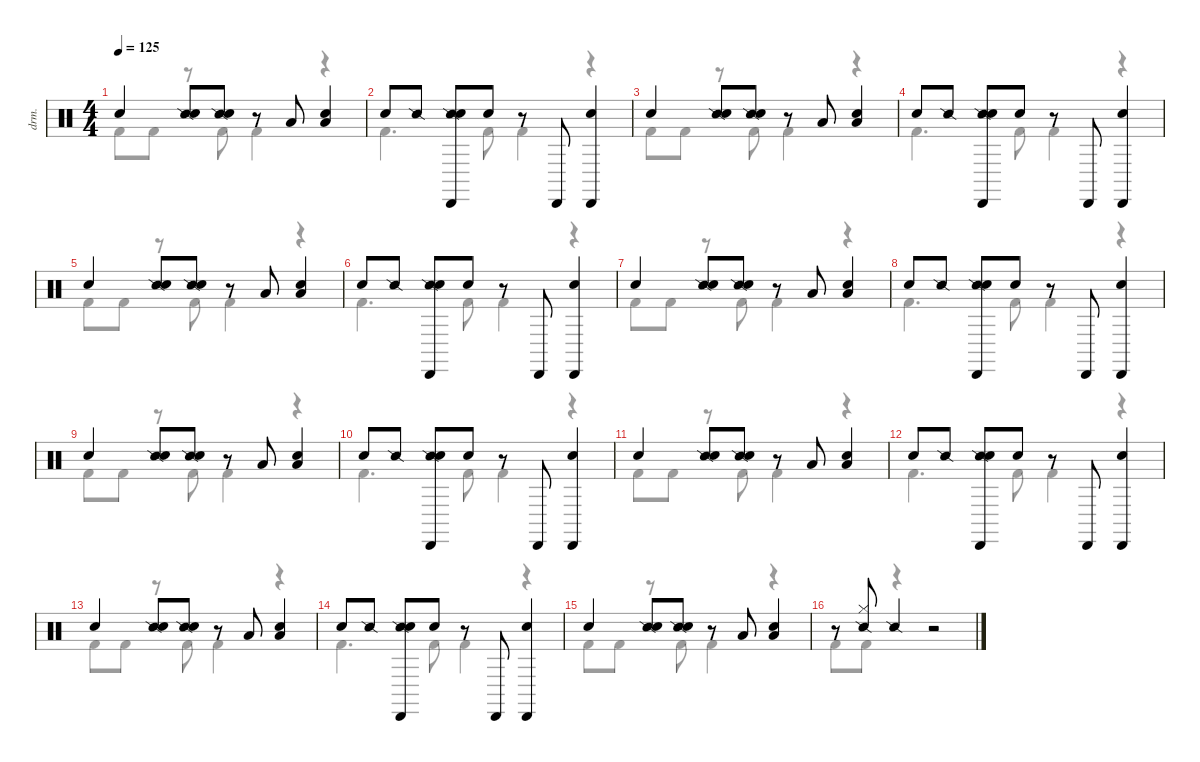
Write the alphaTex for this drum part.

\defaultSystemsLayout 4
\hideDynamics
\bracketExtendMode nobrackets
\otherSystemsTrackNameOrientation horizontal
\track ("Drums" "drm.") {instrument percussion}
\staff {score}
\articulation defaults
\voice
\ts (4 4)
\tempo 125
\clef neutral
\ks c "Hand Clap (hit)".4{dy p beam Up}
("Snare (side stick) 2" "Snare (hit) 2").8{dy mf beam Up} ("Snare (side stick) 2" "Hand Clap (hit)").8{beam Up} r.8{beam Up} "Low Tom (hit)".8{dy f beam Up} ("Low Tom (hit)" "Snare (hit) 2").4{beam Up} |
"Hand Clap (hit)".8{dy p beam Up} "Snare (side stick) 2".8{dy f beam Up} ("Snare (side stick) 2" "Cabasa (hit)" "Snare (hit) 2").8{beam Up} "Hand Clap (hit)".8{dy p beam Up} r.8{beam Up} "Cabasa (hit)".8{dy f beam Up} ("Cabasa (hit)" "Snare (hit) 2").4{beam Up} |
"Hand Clap (hit)".4{dy p beam Up} ("Snare (side stick) 2" "Snare (hit) 2").8{dy mf beam Up} ("Snare (side stick) 2" "Hand Clap (hit)").8{beam Up} r.8{beam Up} "Low Tom (hit)".8{dy f beam Up} ("Low Tom (hit)" "Snare (hit) 2").4{beam Up} |
"Hand Clap (hit)".8{dy p beam Up} "Snare (side stick) 2".8{dy f beam Up} ("Snare (side stick) 2" "Cabasa (hit)" "Snare (hit) 2").8{beam Up} "Hand Clap (hit)".8{dy p beam Up} r.8{beam Up} "Cabasa (hit)".8{dy f beam Up} ("Cabasa (hit)" "Snare (hit) 2").4{beam Up} |
"Hand Clap (hit)".4{dy p beam Up} ("Snare (side stick) 2" "Snare (hit) 2").8{dy mf beam Up} ("Snare (side stick) 2" "Hand Clap (hit)").8{beam Up} r.8{beam Up} "Low Tom (hit)".8{dy f beam Up} ("Low Tom (hit)" "Snare (hit) 2").4{beam Up} |
"Hand Clap (hit)".8{dy p beam Up} "Snare (side stick) 2".8{dy f beam Up} ("Snare (side stick) 2" "Cabasa (hit)" "Snare (hit) 2").8{beam Up} "Hand Clap (hit)".8{dy p beam Up} r.8{beam Up} "Cabasa (hit)".8{dy f beam Up} ("Cabasa (hit)" "Snare (hit) 2").4{beam Up} |
"Hand Clap (hit)".4{dy p beam Up} ("Snare (side stick) 2" "Snare (hit) 2").8{dy mf beam Up} ("Snare (side stick) 2" "Hand Clap (hit)").8{beam Up} r.8{beam Up} "Low Tom (hit)".8{dy f beam Up} ("Low Tom (hit)" "Snare (hit) 2").4{beam Up} |
"Hand Clap (hit)".8{dy p beam Up} "Snare (side stick) 2".8{dy f beam Up} ("Snare (side stick) 2" "Cabasa (hit)" "Snare (hit) 2").8{beam Up} "Hand Clap (hit)".8{dy p beam Up} r.8{beam Up} "Cabasa (hit)".8{dy f beam Up} ("Cabasa (hit)" "Snare (hit) 2").4{beam Up} |
"Hand Clap (hit)".4{dy p beam Up} ("Snare (side stick) 2" "Snare (hit) 2").8{dy mf beam Up} ("Snare (side stick) 2" "Hand Clap (hit)").8{beam Up} r.8{beam Up} "Low Tom (hit)".8{dy f beam Up} ("Low Tom (hit)" "Snare (hit) 2").4{beam Up} |
"Hand Clap (hit)".8{dy p beam Up} "Snare (side stick) 2".8{dy f beam Up} ("Snare (side stick) 2" "Cabasa (hit)" "Snare (hit) 2").8{beam Up} "Hand Clap (hit)".8{dy p beam Up} r.8{beam Up} "Cabasa (hit)".8{dy f beam Up} ("Cabasa (hit)" "Snare (hit) 2").4{beam Up} |
"Hand Clap (hit)".4{dy p beam Up} ("Snare (side stick) 2" "Snare (hit) 2").8{dy mf beam Up} ("Snare (side stick) 2" "Hand Clap (hit)").8{beam Up} r.8{beam Up} "Low Tom (hit)".8{dy f beam Up} ("Low Tom (hit)" "Snare (hit) 2").4{beam Up} |
"Hand Clap (hit)".8{dy p beam Up} "Snare (side stick) 2".8{dy f beam Up} ("Snare (side stick) 2" "Cabasa (hit)" "Snare (hit) 2").8{beam Up} "Hand Clap (hit)".8{dy p beam Up} r.8{beam Up} "Cabasa (hit)".8{dy f beam Up} ("Cabasa (hit)" "Snare (hit) 2").4{beam Up} |
"Hand Clap (hit)".4{dy p beam Up} ("Snare (side stick) 2" "Snare (hit) 2").8{dy mf beam Up} ("Snare (side stick) 2" "Hand Clap (hit)").8{beam Up} r.8{beam Up} "Low Tom (hit)".8{dy f beam Up} ("Low Tom (hit)" "Snare (hit) 2").4{beam Up} |
"Hand Clap (hit)".8{dy p beam Up} "Snare (side stick) 2".8{dy f beam Up} ("Snare (side stick) 2" "Cabasa (hit)" "Snare (hit) 2").8{beam Up} "Hand Clap (hit)".8{dy p beam Up} r.8{beam Up} "Cabasa (hit)".8{dy f beam Up} ("Cabasa (hit)" "Snare (hit) 2").4{beam Up} |
"Hand Clap (hit)".4{dy p beam Up} ("Snare (side stick) 2" "Snare (hit) 2").8{dy mf beam Up} ("Snare (side stick) 2" "Hand Clap (hit)").8{beam Up} r.8{beam Up} "Low Tom (hit)".8{dy f beam Up} ("Low Tom (hit)" "Snare (hit) 2").4{beam Up} |
r.8{beam Up} ("Hi-Hat (closed)" "Snare (side stick) 2").8{beam Up} "Snare (side stick) 2".4{dy mp beam Up} r.2{beam Up}
\voice
\clef neutral
\ottava regular
\simile none
\ks c "Kick (hit) 2".8{dy ff beam Down} "Kick (hit) 2".8{dy p beam Down}
r.8{beam Down} "Kick (hit) 2".8{dy ff beam Down} "Kick (hit) 2".4{dy p beam Down} r.4{beam Down} |
"Kick (hit) 2".4{d dy ff beam Down} "Kick (hit) 2".8{beam Down} "Kick (hit) 2".4{dy p beam Down} r.4{beam Down} |
"Kick (hit) 2".8{dy ff beam Down} "Kick (hit) 2".8{dy p beam Down} r.8{beam Down} "Kick (hit) 2".8{dy ff beam Down} "Kick (hit) 2".4{dy p beam Down} r.4{beam Down} |
"Kick (hit) 2".4{d dy ff beam Down} "Kick (hit) 2".8{beam Down} "Kick (hit) 2".4{dy p beam Down} r.4{beam Down} |
"Kick (hit) 2".8{dy ff beam Down} "Kick (hit) 2".8{dy p beam Down} r.8{beam Down} "Kick (hit) 2".8{dy ff beam Down} "Kick (hit) 2".4{dy p beam Down} r.4{beam Down} |
"Kick (hit) 2".4{d dy ff beam Down} "Kick (hit) 2".8{beam Down} "Kick (hit) 2".4{dy p beam Down} r.4{beam Down} |
"Kick (hit) 2".8{dy ff beam Down} "Kick (hit) 2".8{dy p beam Down} r.8{beam Down} "Kick (hit) 2".8{dy ff beam Down} "Kick (hit) 2".4{dy p beam Down} r.4{beam Down} |
"Kick (hit) 2".4{d dy ff beam Down} "Kick (hit) 2".8{beam Down} "Kick (hit) 2".4{dy p beam Down} r.4{beam Down} |
"Kick (hit) 2".8{dy ff beam Down} "Kick (hit) 2".8{dy p beam Down} r.8{beam Down} "Kick (hit) 2".8{dy ff beam Down} "Kick (hit) 2".4{dy p beam Down} r.4{beam Down} |
"Kick (hit) 2".4{d dy ff beam Down} "Kick (hit) 2".8{beam Down} "Kick (hit) 2".4{dy p beam Down} r.4{beam Down} |
"Kick (hit) 2".8{dy ff beam Down} "Kick (hit) 2".8{dy p beam Down} r.8{beam Down} "Kick (hit) 2".8{dy ff beam Down} "Kick (hit) 2".4{dy p beam Down} r.4{beam Down} |
"Kick (hit) 2".4{d dy ff beam Down} "Kick (hit) 2".8{beam Down} "Kick (hit) 2".4{dy p beam Down} r.4{beam Down} |
"Kick (hit) 2".8{dy ff beam Down} "Kick (hit) 2".8{dy p beam Down} r.8{beam Down} "Kick (hit) 2".8{dy ff beam Down} "Kick (hit) 2".4{dy p beam Down} r.4{beam Down} |
"Kick (hit) 2".4{d dy ff beam Down} "Kick (hit) 2".8{beam Down} "Kick (hit) 2".4{dy p beam Down} r.4{beam Down} |
"Kick (hit) 2".8{dy ff beam Down} "Kick (hit) 2".8{dy p beam Down} r.8{beam Down} "Kick (hit) 2".8{dy ff beam Down} "Kick (hit) 2".4{dy p beam Down} r.4{beam Down} |
"Kick (hit) 2".8{dy ff beam Down} "Kick (hit) 2".8{dy p beam Down} r.4{beam Down} r.2{beam Down}
